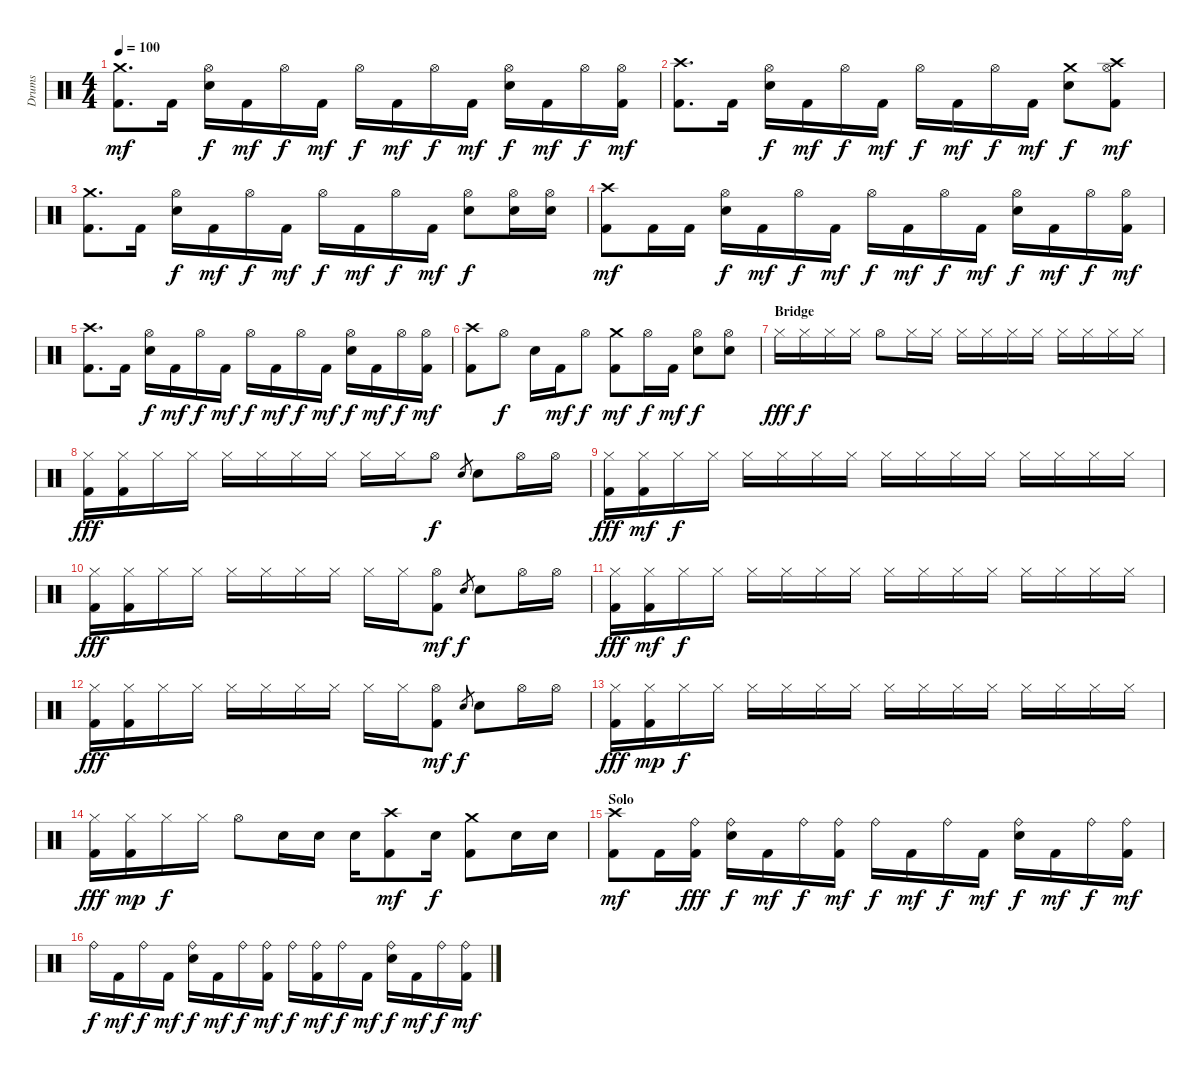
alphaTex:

\track ("Drums" "Drums") {instrument percussion}
\staff {score}
\articulation defaults
\ts (4 4)
\tempo 100
\clef neutral
\ks c
("Kick (hit) 2" "Crash medium (hit)").8{d dy mf} "Kick (hit) 2".16 ("Snare (hit) 2" "Hi-Hat (open)").16{dy f} "Kick (hit) 2".16{dy mf} "Hi-Hat (open)".16{dy f} "Kick (hit) 2".16{dy mf} "Hi-Hat (open)".16{dy f} "Kick (hit) 2".16{dy mf} "Hi-Hat (open)".16{dy f} "Kick (hit) 2".16{dy mf} ("Snare (hit) 2" "Hi-Hat (open)").16{dy f} "Kick (hit) 2".16{dy mf} "Hi-Hat (open)".16{dy f} ("Kick (hit) 2" "Hi-Hat (open)").16{dy mf} |
("Kick (hit) 2" "Crash high (hit)").8{d} "Kick (hit) 2".16 ("Snare (hit) 2" "Hi-Hat (open)").16{dy f} "Kick (hit) 2".16{dy mf} "Hi-Hat (open)".16{dy f} "Kick (hit) 2".16{dy mf} "Hi-Hat (open)".16{dy f} "Kick (hit) 2".16{dy mf} "Hi-Hat (open)".16{dy f} "Kick (hit) 2".16{dy mf} ("Snare (hit) 2" "Crash medium (hit)").8{dy f} ("Kick (hit) 2" "Hi-Hat (open)" "Crash high (hit)").8{dy mf} |
("Kick (hit) 2" "Crash medium (hit)").8{d} "Kick (hit) 2".16 ("Snare (hit) 2" "Hi-Hat (open)").16{dy f} "Kick (hit) 2".16{dy mf} "Hi-Hat (open)".16{dy f} "Kick (hit) 2".16{dy mf} "Hi-Hat (open)".16{dy f} "Kick (hit) 2".16{dy mf} "Hi-Hat (open)".16{dy f} "Kick (hit) 2".16{dy mf} ("Snare (hit) 2" "Hi-Hat (open)").8{dy f} ("Snare (hit) 2" "Hi-Hat (open)").16 ("Snare (hit) 2" "Hi-Hat (open)").16 |
("Kick (hit) 2" "Crash high (hit)").8{dy mf} "Kick (hit) 2".16 "Kick (hit) 2".16 ("Snare (hit) 2" "Hi-Hat (open)").16{dy f} "Kick (hit) 2".16{dy mf} "Hi-Hat (open)".16{dy f} "Kick (hit) 2".16{dy mf} "Hi-Hat (open)".16{dy f} "Kick (hit) 2".16{dy mf} "Hi-Hat (open)".16{dy f} "Kick (hit) 2".16{dy mf} ("Snare (hit) 2" "Hi-Hat (open)").16{dy f} "Kick (hit) 2".16{dy mf} "Hi-Hat (open)".16{dy f} ("Kick (hit) 2" "Hi-Hat (open)").16{dy mf} |
("Kick (hit) 2" "Crash high (hit)").8{d} "Kick (hit) 2".16 ("Snare (hit) 2" "Hi-Hat (open)").16{dy f} "Kick (hit) 2".16{dy mf} "Hi-Hat (open)".16{dy f} "Kick (hit) 2".16{dy mf} "Hi-Hat (open)".16{dy f} "Kick (hit) 2".16{dy mf} "Hi-Hat (open)".16{dy f} "Kick (hit) 2".16{dy mf} ("Snare (hit) 2" "Hi-Hat (open)").16{dy f} "Kick (hit) 2".16{dy mf} "Hi-Hat (open)".16{dy f} ("Kick (hit) 2" "Hi-Hat (open)").16{dy mf} |
("Kick (hit) 2" "Crash high (hit)").8 "Hi-Hat (open)".8{dy f} "Snare (hit) 2".16 "Kick (hit) 2".16{dy mf} "Hi-Hat (open)".8{dy f} ("Kick (hit) 2" "Crash medium (hit)").8{dy mf} "Hi-Hat (open)".16{dy f} "Kick (hit) 2".16{dy mf} ("Snare (hit) 2" "Hi-Hat (open)").8{dy f} ("Snare (hit) 2" "Hi-Hat (open)").8 |
\section ("" "Bridge")
"Hi-Hat (closed)".16{dy fff} "Hi-Hat (closed)".16{dy f} "Hi-Hat (closed)".16 "Hi-Hat (closed)".16 "Hi-Hat (open)".8 "Hi-Hat (closed)".16 "Hi-Hat (closed)".16 "Hi-Hat (closed)".16 "Hi-Hat (closed)".16 "Hi-Hat (closed)".16 "Hi-Hat (closed)".16 "Hi-Hat (closed)".16 "Hi-Hat (closed)".16 "Hi-Hat (closed)".16 "Hi-Hat (closed)".16 |
("Kick (hit) 2" "Hi-Hat (closed)").16{dy fff} ("Kick (hit) 2" "Hi-Hat (closed)").16 "Hi-Hat (closed)".16 "Hi-Hat (closed)".16 "Hi-Hat (closed)".16 "Hi-Hat (closed)".16 "Hi-Hat (closed)".16 "Hi-Hat (closed)".16 "Hi-Hat (closed)".16 "Hi-Hat (closed)".16 "Hi-Hat (open)".8{dy f} "Snare (hit) 2".8{gr} "Snare (hit) 2".8 "Hi-Hat (open)".16 "Hi-Hat (open)".16 |
("Kick (hit) 2" "Hi-Hat (closed)").16{dy fff} ("Kick (hit) 2" "Hi-Hat (closed)").16{dy mf} "Hi-Hat (closed)".16{dy f} "Hi-Hat (closed)".16 "Hi-Hat (closed)".16 "Hi-Hat (closed)".16 "Hi-Hat (closed)".16 "Hi-Hat (closed)".16 "Hi-Hat (closed)".16 "Hi-Hat (closed)".16 "Hi-Hat (closed)".16 "Hi-Hat (closed)".16 "Hi-Hat (closed)".16 "Hi-Hat (closed)".16 "Hi-Hat (closed)".16 "Hi-Hat (closed)".16 |
("Kick (hit) 2" "Hi-Hat (closed)").16{dy fff} ("Kick (hit) 2" "Hi-Hat (closed)").16 "Hi-Hat (closed)".16 "Hi-Hat (closed)".16 "Hi-Hat (closed)".16 "Hi-Hat (closed)".16 "Hi-Hat (closed)".16 "Hi-Hat (closed)".16 "Hi-Hat (closed)".16 "Hi-Hat (closed)".16 ("Kick (hit) 2" "Hi-Hat (open)").8{dy mf} "Snare (hit) 2".8{gr dy f} "Snare (hit) 2".8 "Hi-Hat (open)".16 "Hi-Hat (open)".16 |
("Kick (hit) 2" "Hi-Hat (closed)").16{dy fff} ("Kick (hit) 2" "Hi-Hat (closed)").16{dy mf} "Hi-Hat (closed)".16{dy f} "Hi-Hat (closed)".16 "Hi-Hat (closed)".16 "Hi-Hat (closed)".16 "Hi-Hat (closed)".16 "Hi-Hat (closed)".16 "Hi-Hat (closed)".16 "Hi-Hat (closed)".16 "Hi-Hat (closed)".16 "Hi-Hat (closed)".16 "Hi-Hat (closed)".16 "Hi-Hat (closed)".16 "Hi-Hat (closed)".16 "Hi-Hat (closed)".16 |
("Kick (hit) 2" "Hi-Hat (closed)").16{dy fff} ("Kick (hit) 2" "Hi-Hat (closed)").16 "Hi-Hat (closed)".16 "Hi-Hat (closed)".16 "Hi-Hat (closed)".16 "Hi-Hat (closed)".16 "Hi-Hat (closed)".16 "Hi-Hat (closed)".16 "Hi-Hat (closed)".16 "Hi-Hat (closed)".16 ("Kick (hit) 2" "Hi-Hat (open)").8{dy mf} "Snare (hit) 2".8{gr dy f} "Snare (hit) 2".8 "Hi-Hat (open)".16 "Hi-Hat (open)".16 |
("Kick (hit) 2" "Hi-Hat (closed)").16{dy fff} ("Kick (hit) 2" "Hi-Hat (closed)").16{dy mp} "Hi-Hat (closed)".16{dy f} "Hi-Hat (closed)".16 "Hi-Hat (closed)".16 "Hi-Hat (closed)".16 "Hi-Hat (closed)".16 "Hi-Hat (closed)".16 "Hi-Hat (closed)".16 "Hi-Hat (closed)".16 "Hi-Hat (closed)".16 "Hi-Hat (closed)".16 "Hi-Hat (closed)".16 "Hi-Hat (closed)".16 "Hi-Hat (closed)".16 "Hi-Hat (closed)".16 |
("Kick (hit) 2" "Hi-Hat (closed)").16{dy fff} ("Kick (hit) 2" "Hi-Hat (closed)").16{dy mp} "Hi-Hat (closed)".16{dy f} "Hi-Hat (closed)".16 "Hi-Hat (open)".8 "Snare (hit) 2".16 "Snare (hit) 2".16 "Snare (hit) 2".16 ("Kick (hit) 2" "Crash high (hit)").8{dy mf} "Snare (hit) 2".16{dy f} ("Kick (hit) 2" "Crash medium (hit)").8 "Snare (hit) 2".16 "Snare (hit) 2".16 |
\section ("" "Solo")
("Kick (hit) 2" "Crash high (hit)").8{dy mf} "Kick (hit) 2".16 ("Kick (hit) 2" "Ride (bell)").16{dy fff} ("Snare (hit) 2" "Ride (bell)").16{dy f} "Kick (hit) 2".16{dy mf} "Ride (bell)".16{dy f} ("Kick (hit) 2" "Ride (bell)").16{dy mf} "Ride (bell)".16{dy f} "Kick (hit) 2".16{dy mf} "Ride (bell)".16{dy f} "Kick (hit) 2".16{dy mf} ("Snare (hit) 2" "Ride (bell)").16{dy f} "Kick (hit) 2".16{dy mf} "Ride (bell)".16{dy f} ("Kick (hit) 2" "Ride (bell)").16{dy mf} |
"Ride (bell)".16{dy f} "Kick (hit) 2".16{dy mf} "Ride (bell)".16{dy f} "Kick (hit) 2".16{dy mf} ("Snare (hit) 2" "Ride (bell)").16{dy f} "Kick (hit) 2".16{dy mf} "Ride (bell)".16{dy f} ("Kick (hit) 2" "Ride (bell)").16{dy mf} "Ride (bell)".16{dy f} ("Kick (hit) 2" "Ride (bell)").16{dy mf} "Ride (bell)".16{dy f} "Kick (hit) 2".16{dy mf} ("Snare (hit) 2" "Ride (bell)").16{dy f} "Kick (hit) 2".16{dy mf} "Ride (bell)".16{dy f} ("Kick (hit) 2" "Ride (bell)").16{dy mf}
